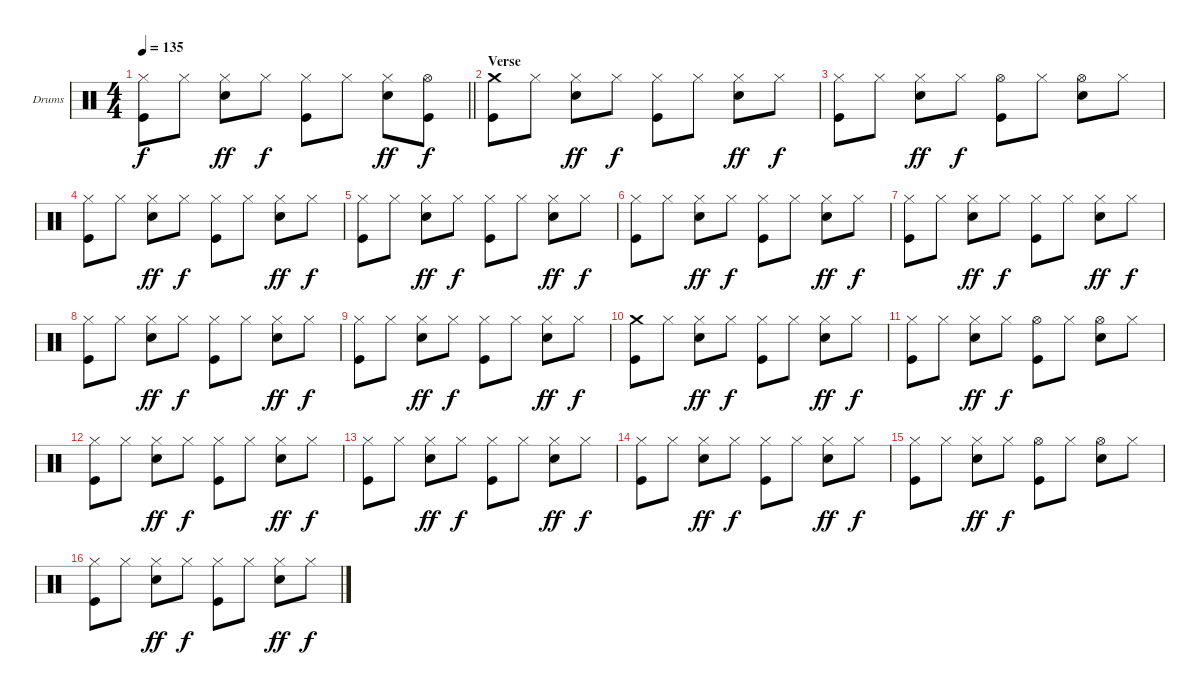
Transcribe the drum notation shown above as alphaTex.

\bracketExtendMode groupsimilarinstruments
\firstSystemTrackNameOrientation horizontal
\otherSystemsTrackNameOrientation horizontal
\track ("Drumkit" "Drums") {instrument percussion}
\staff {score}
\articulation defaults
\ts (4 4)
\tempo 135
\clef neutral
\barLineRight lightlight
\ks c
("Hi-Hat (closed)" "Kick (hit)").8{dy f} "Hi-Hat (closed)".8 ("Hi-Hat (closed)" "Snare (hit) 2").8{dy ff} "Hi-Hat (closed)".8{dy f} ("Hi-Hat (closed)" "Kick (hit)").8 "Hi-Hat (closed)".8 ("Hi-Hat (closed)" "Snare (hit) 2").8{dy ff} ("Hi-Hat (open)" "Kick (hit)").8{dy f} |
\section ("" "Verse")
("Crash medium (hit)" "Kick (hit)").8 "Hi-Hat (closed)".8 ("Hi-Hat (closed)" "Snare (hit) 2").8{dy ff} "Hi-Hat (closed)".8{dy f} ("Hi-Hat (closed)" "Kick (hit)").8 "Hi-Hat (closed)".8 ("Hi-Hat (closed)" "Snare (hit) 2").8{dy ff} "Hi-Hat (closed)".8{dy f} |
("Hi-Hat (closed)" "Kick (hit)").8 "Hi-Hat (closed)".8 ("Hi-Hat (closed)" "Snare (hit) 2").8{dy ff} "Hi-Hat (closed)".8{dy f} ("Hi-Hat (open)" "Kick (hit)").8 "Hi-Hat (closed)".8 ("Hi-Hat (open)" "Snare (hit) 2").8 "Hi-Hat (closed)".8 |
("Hi-Hat (closed)" "Kick (hit)").8 "Hi-Hat (closed)".8 ("Hi-Hat (closed)" "Snare (hit) 2").8{dy ff} "Hi-Hat (closed)".8{dy f} ("Hi-Hat (closed)" "Kick (hit)").8 "Hi-Hat (closed)".8 ("Hi-Hat (closed)" "Snare (hit) 2").8{dy ff} "Hi-Hat (closed)".8{dy f} |
("Hi-Hat (closed)" "Kick (hit)").8 "Hi-Hat (closed)".8 ("Hi-Hat (closed)" "Snare (hit) 2").8{dy ff} "Hi-Hat (closed)".8{dy f} ("Hi-Hat (closed)" "Kick (hit)").8 "Hi-Hat (closed)".8 ("Hi-Hat (closed)" "Snare (hit) 2").8{dy ff} "Hi-Hat (closed)".8{dy f} |
("Hi-Hat (closed)" "Kick (hit)").8 "Hi-Hat (closed)".8 ("Hi-Hat (closed)" "Snare (hit) 2").8{dy ff} "Hi-Hat (closed)".8{dy f} ("Hi-Hat (closed)" "Kick (hit)").8 "Hi-Hat (closed)".8 ("Hi-Hat (closed)" "Snare (hit) 2").8{dy ff} "Hi-Hat (closed)".8{dy f} |
("Hi-Hat (closed)" "Kick (hit)").8 "Hi-Hat (closed)".8 ("Hi-Hat (closed)" "Snare (hit) 2").8{dy ff} "Hi-Hat (closed)".8{dy f} ("Hi-Hat (closed)" "Kick (hit)").8 "Hi-Hat (closed)".8 ("Hi-Hat (closed)" "Snare (hit) 2").8{dy ff} "Hi-Hat (closed)".8{dy f} |
("Hi-Hat (closed)" "Kick (hit)").8 "Hi-Hat (closed)".8 ("Hi-Hat (closed)" "Snare (hit) 2").8{dy ff} "Hi-Hat (closed)".8{dy f} ("Hi-Hat (closed)" "Kick (hit)").8 "Hi-Hat (closed)".8 ("Hi-Hat (closed)" "Snare (hit) 2").8{dy ff} "Hi-Hat (closed)".8{dy f} |
("Hi-Hat (closed)" "Kick (hit)").8 "Hi-Hat (closed)".8 ("Hi-Hat (closed)" "Snare (hit) 2").8{dy ff} "Hi-Hat (closed)".8{dy f} ("Hi-Hat (closed)" "Kick (hit)").8 "Hi-Hat (closed)".8 ("Hi-Hat (closed)" "Snare (hit) 2").8{dy ff} "Hi-Hat (closed)".8{dy f} |
("Crash medium (hit)" "Kick (hit)").8 "Hi-Hat (closed)".8 ("Hi-Hat (closed)" "Snare (hit) 2").8{dy ff} "Hi-Hat (closed)".8{dy f} ("Hi-Hat (closed)" "Kick (hit)").8 "Hi-Hat (closed)".8 ("Hi-Hat (closed)" "Snare (hit) 2").8{dy ff} "Hi-Hat (closed)".8{dy f} |
("Hi-Hat (closed)" "Kick (hit)").8 "Hi-Hat (closed)".8 ("Hi-Hat (closed)" "Snare (hit) 2").8{dy ff} "Hi-Hat (closed)".8{dy f} ("Hi-Hat (open)" "Kick (hit)").8 "Hi-Hat (closed)".8 ("Hi-Hat (open)" "Snare (hit) 2").8 "Hi-Hat (closed)".8 |
("Hi-Hat (closed)" "Kick (hit)").8 "Hi-Hat (closed)".8 ("Hi-Hat (closed)" "Snare (hit) 2").8{dy ff} "Hi-Hat (closed)".8{dy f} ("Hi-Hat (closed)" "Kick (hit)").8 "Hi-Hat (closed)".8 ("Hi-Hat (closed)" "Snare (hit) 2").8{dy ff} "Hi-Hat (closed)".8{dy f} |
("Hi-Hat (closed)" "Kick (hit)").8 "Hi-Hat (closed)".8 ("Hi-Hat (closed)" "Snare (hit) 2").8{dy ff} "Hi-Hat (closed)".8{dy f} ("Hi-Hat (closed)" "Kick (hit)").8 "Hi-Hat (closed)".8 ("Hi-Hat (closed)" "Snare (hit) 2").8{dy ff} "Hi-Hat (closed)".8{dy f} |
("Hi-Hat (closed)" "Kick (hit)").8 "Hi-Hat (closed)".8 ("Hi-Hat (closed)" "Snare (hit) 2").8{dy ff} "Hi-Hat (closed)".8{dy f} ("Hi-Hat (closed)" "Kick (hit)").8 "Hi-Hat (closed)".8 ("Hi-Hat (closed)" "Snare (hit) 2").8{dy ff} "Hi-Hat (closed)".8{dy f} |
("Hi-Hat (closed)" "Kick (hit)").8 "Hi-Hat (closed)".8 ("Hi-Hat (closed)" "Snare (hit) 2").8{dy ff} "Hi-Hat (closed)".8{dy f} ("Hi-Hat (open)" "Kick (hit)").8 "Hi-Hat (closed)".8 ("Hi-Hat (open)" "Snare (hit) 2").8 "Hi-Hat (closed)".8 |
("Hi-Hat (closed)" "Kick (hit)").8 "Hi-Hat (closed)".8 ("Hi-Hat (closed)" "Snare (hit) 2").8{dy ff} "Hi-Hat (closed)".8{dy f} ("Hi-Hat (closed)" "Kick (hit)").8 "Hi-Hat (closed)".8 ("Hi-Hat (closed)" "Snare (hit) 2").8{dy ff} "Hi-Hat (closed)".8{dy f}
